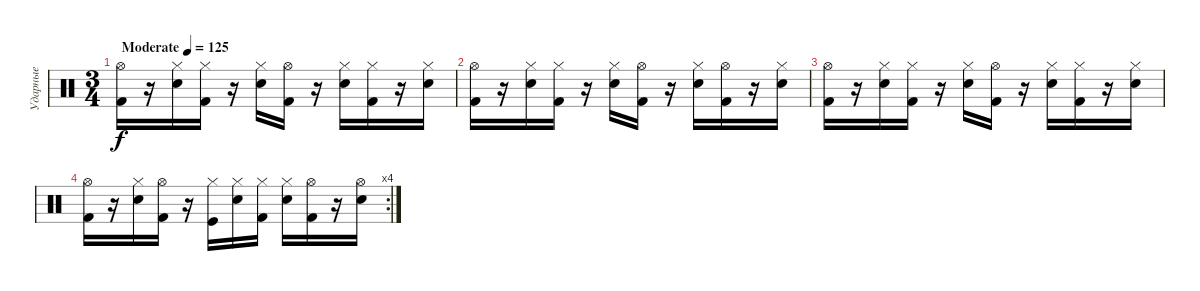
\track ("Ударные" "Ударные") {instrument percussion}
\staff {score}
\articulation defaults
\ts (3 4)
\tempo (125 "Moderate")
\clef neutral
\ks c
("Hi-Hat (open)" "Kick (hit) 2").16{dy f} r.16 ("Hi-Hat (closed)" "Electric Snare (hit)").16 ("Hi-Hat (closed)" "Kick (hit) 2").16 r.16 ("Hi-Hat (closed)" "Electric Snare (hit)").16 ("Hi-Hat (open)" "Kick (hit) 2").16 r.16 ("Hi-Hat (closed)" "Electric Snare (hit)").16 ("Hi-Hat (closed)" "Kick (hit) 2").16 r.16 ("Hi-Hat (closed)" "Electric Snare (hit)").16 |
("Hi-Hat (open)" "Kick (hit) 2").16 r.16 ("Hi-Hat (closed)" "Electric Snare (hit)").16 ("Hi-Hat (closed)" "Kick (hit) 2").16 r.16 ("Hi-Hat (closed)" "Electric Snare (hit)").16 ("Hi-Hat (open)" "Kick (hit) 2").16 r.16 ("Hi-Hat (closed)" "Electric Snare (hit)").16 ("Hi-Hat (open)" "Kick (hit) 2").16 r.16 ("Hi-Hat (closed)" "Electric Snare (hit)").16 |
("Hi-Hat (open)" "Kick (hit) 2").16 r.16 ("Hi-Hat (closed)" "Electric Snare (hit)").16 ("Hi-Hat (closed)" "Kick (hit) 2").16 r.16 ("Hi-Hat (closed)" "Electric Snare (hit)").16 ("Hi-Hat (open)" "Kick (hit) 2").16 r.16 ("Hi-Hat (closed)" "Electric Snare (hit)").16 ("Hi-Hat (closed)" "Kick (hit) 2").16 r.16 ("Hi-Hat (closed)" "Electric Snare (hit)").16 |
\rc 4
("Hi-Hat (open)" "Kick (hit) 2").16 r.16 ("Hi-Hat (closed)" "Electric Snare (hit)").16 ("Hi-Hat (open)" "Kick (hit) 2").16 r.16 ("Hi-Hat (closed)" "Kick (hit)").16 ("Hi-Hat (closed)" "Electric Snare (hit)").16 ("Hi-Hat (closed)" "Kick (hit) 2").16 ("Hi-Hat (closed)" "Electric Snare (hit)").16 ("Hi-Hat (open)" "Kick (hit) 2").16 r.16 ("Hi-Hat (open)" "Electric Snare (hit)").16
